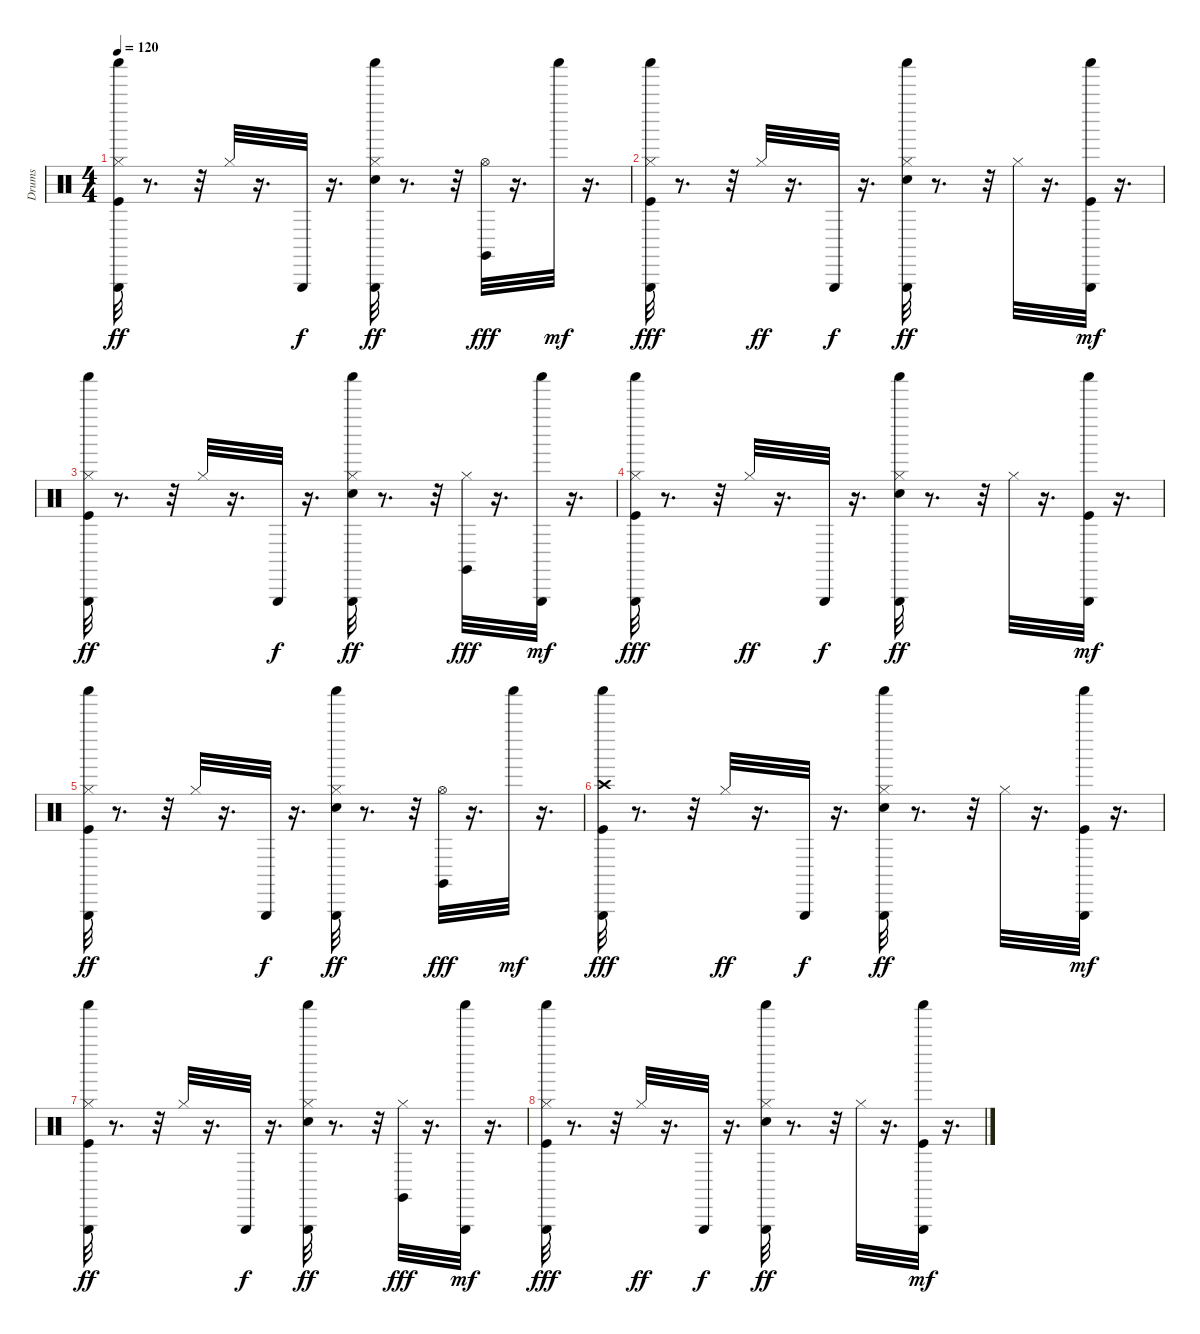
\track ("Drums" "Drums") {instrument percussion}
\staff {score}
\articulation defaults
\ts (4 4)
\tempo 120
\clef neutral
\ks c
("Shaker (hit)" "Triangle (hit)" "Kick (hit)" "Hi-Hat (closed)").32{dy ff} r.8{d} r.32 "Hi-Hat (closed)".32 r.16{d} "Triangle (hit)".32{dy f} r.16{d} ("Shaker (hit)" "Triangle (hit)" "Electric Snare (hit)" "Hi-Hat (closed)").32{dy ff} r.8{d} r.32 ("Hi-Hat (open)" "Claves (hit)").32{dy fff} r.16{d} "Shaker (hit)".32{dy mf} r.16{d} |
("Shaker (hit)" "Triangle (hit)" "Hi-Hat (closed)" "Kick (hit)").32{dy fff} r.8{d} r.32 "Hi-Hat (closed)".32{dy ff} r.16{d} "Triangle (hit)".32{dy f} r.16{d} ("Shaker (hit)" "Triangle (hit)" "Electric Snare (hit)" "Hi-Hat (closed)").32{dy ff} r.8{d} r.32 "Hi-Hat (closed)".32 r.16{d} ("Kick (hit)" "Shaker (hit)" "Triangle (hit)").32{dy mf} r.16{d} |
("Shaker (hit)" "Triangle (hit)" "Kick (hit)" "Hi-Hat (closed)").32{dy ff} r.8{d} r.32 "Hi-Hat (closed)".32 r.16{d} "Triangle (hit)".32{dy f} r.16{d} ("Shaker (hit)" "Triangle (hit)" "Electric Snare (hit)" "Hi-Hat (closed)").32{dy ff} r.8{d} r.32 ("Hi-Hat (closed)" "Claves (hit)").32{dy fff} r.16{d} ("Shaker (hit)" "Triangle (hit)").32{dy mf} r.16{d} |
("Shaker (hit)" "Triangle (hit)" "Hi-Hat (closed)" "Kick (hit)").32{dy fff} r.8{d} r.32 "Hi-Hat (closed)".32{dy ff} r.16{d} "Triangle (hit)".32{dy f} r.16{d} ("Shaker (hit)" "Triangle (hit)" "Electric Snare (hit)" "Hi-Hat (closed)").32{dy ff} r.8{d} r.32 "Hi-Hat (closed)".32 r.16{d} ("Kick (hit)" "Shaker (hit)" "Triangle (hit)").32{dy mf} r.16{d} |
("Shaker (hit)" "Triangle (hit)" "Kick (hit)" "Hi-Hat (closed)").32{dy ff} r.8{d} r.32 "Hi-Hat (closed)".32 r.16{d} "Triangle (hit)".32{dy f} r.16{d} ("Shaker (hit)" "Triangle (hit)" "Electric Snare (hit)" "Hi-Hat (closed)").32{dy ff} r.8{d} r.32 ("Hi-Hat (open)" "Claves (hit)").32{dy fff} r.16{d} "Shaker (hit)".32{dy mf} r.16{d} |
("Crash high (hit)" "Shaker (hit)" "Triangle (hit)" "Kick (hit)").32{dy fff} r.8{d} r.32 "Hi-Hat (closed)".32{dy ff} r.16{d} "Triangle (hit)".32{dy f} r.16{d} ("Shaker (hit)" "Triangle (hit)" "Electric Snare (hit)" "Hi-Hat (closed)").32{dy ff} r.8{d} r.32 "Hi-Hat (closed)".32 r.16{d} ("Kick (hit)" "Shaker (hit)" "Triangle (hit)").32{dy mf} r.16{d} |
("Shaker (hit)" "Triangle (hit)" "Kick (hit)" "Hi-Hat (closed)").32{dy ff} r.8{d} r.32 "Hi-Hat (closed)".32 r.16{d} "Triangle (hit)".32{dy f} r.16{d} ("Shaker (hit)" "Triangle (hit)" "Electric Snare (hit)" "Hi-Hat (closed)").32{dy ff} r.8{d} r.32 ("Hi-Hat (closed)" "Claves (hit)").32{dy fff} r.16{d} ("Shaker (hit)" "Triangle (hit)").32{dy mf} r.16{d} |
("Shaker (hit)" "Triangle (hit)" "Hi-Hat (closed)" "Kick (hit)").32{dy fff} r.8{d} r.32 "Hi-Hat (closed)".32{dy ff} r.16{d} "Triangle (hit)".32{dy f} r.16{d} ("Shaker (hit)" "Triangle (hit)" "Electric Snare (hit)" "Hi-Hat (closed)").32{dy ff} r.8{d} r.32 "Hi-Hat (closed)".32 r.16{d} ("Kick (hit)" "Shaker (hit)" "Triangle (hit)").32{dy mf} r.16{d}
